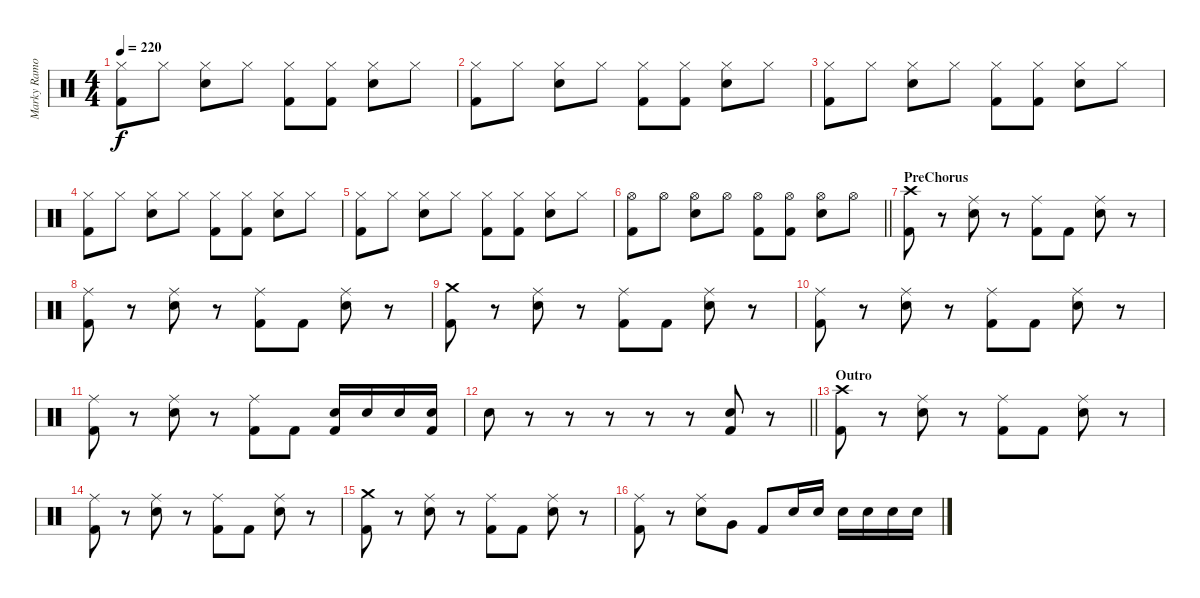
\track ("Marky Ramone" "Marky Ramo") {instrument percussion}
\staff {score}
\articulation defaults
\ts (4 4)
\tempo 220
\clef neutral
\ks c
("Hi-Hat (closed)" "Kick (hit) 2").8{dy f} "Hi-Hat (closed)".8 ("Hi-Hat (closed)" "Electric Snare (hit)").8 "Hi-Hat (closed)".8 ("Hi-Hat (closed)" "Kick (hit) 2").8 ("Hi-Hat (closed)" "Kick (hit) 2").8 ("Hi-Hat (closed)" "Electric Snare (hit)").8 "Hi-Hat (closed)".8 |
("Hi-Hat (closed)" "Kick (hit) 2").8 "Hi-Hat (closed)".8 ("Hi-Hat (closed)" "Electric Snare (hit)").8 "Hi-Hat (closed)".8 ("Hi-Hat (closed)" "Kick (hit) 2").8 ("Hi-Hat (closed)" "Kick (hit) 2").8 ("Hi-Hat (closed)" "Electric Snare (hit)").8 "Hi-Hat (closed)".8 |
("Hi-Hat (closed)" "Kick (hit) 2").8 "Hi-Hat (closed)".8 ("Hi-Hat (closed)" "Electric Snare (hit)").8 "Hi-Hat (closed)".8 ("Hi-Hat (closed)" "Kick (hit) 2").8 ("Hi-Hat (closed)" "Kick (hit) 2").8 ("Hi-Hat (closed)" "Electric Snare (hit)").8 "Hi-Hat (closed)".8 |
("Hi-Hat (closed)" "Kick (hit) 2").8 "Hi-Hat (closed)".8 ("Hi-Hat (closed)" "Electric Snare (hit)").8 "Hi-Hat (closed)".8 ("Hi-Hat (closed)" "Kick (hit) 2").8 ("Hi-Hat (closed)" "Kick (hit) 2").8 ("Hi-Hat (closed)" "Electric Snare (hit)").8 "Hi-Hat (closed)".8 |
("Hi-Hat (closed)" "Kick (hit) 2").8 "Hi-Hat (closed)".8 ("Hi-Hat (closed)" "Electric Snare (hit)").8 "Hi-Hat (closed)".8 ("Hi-Hat (closed)" "Kick (hit) 2").8 ("Hi-Hat (closed)" "Kick (hit) 2").8 ("Hi-Hat (closed)" "Electric Snare (hit)").8 "Hi-Hat (closed)".8 |
\barLineRight lightlight
("Hi-Hat (open)" "Kick (hit) 2").8 "Hi-Hat (open)".8 ("Hi-Hat (open)" "Electric Snare (hit)").8 "Hi-Hat (open)".8 ("Hi-Hat (open)" "Kick (hit) 2").8 ("Hi-Hat (open)" "Kick (hit) 2").8 ("Hi-Hat (open)" "Electric Snare (hit)").8 "Hi-Hat (open)".8 |
\section ("" "PreChorus")
("Crash high (hit)" "Kick (hit) 2").8 r.8 ("Ride (middle)" "Electric Snare (hit)").8 r.8 ("Ride (middle)" "Kick (hit) 2").8 "Kick (hit) 2".8 ("Ride (middle)" "Electric Snare (hit)").8 r.8 |
("Ride (middle)" "Kick (hit) 2").8 r.8 ("Ride (middle)" "Electric Snare (hit)").8 r.8 ("Ride (middle)" "Kick (hit) 2").8 "Kick (hit) 2".8 ("Ride (middle)" "Electric Snare (hit)").8 r.8 |
("Crash medium (hit)" "Kick (hit) 2").8 r.8 ("Ride (middle)" "Electric Snare (hit)").8 r.8 ("Ride (middle)" "Kick (hit) 2").8 "Kick (hit) 2".8 ("Ride (middle)" "Electric Snare (hit)").8 r.8 |
("Ride (middle)" "Kick (hit) 2").8 r.8 ("Ride (middle)" "Electric Snare (hit)").8 r.8 ("Ride (middle)" "Kick (hit) 2").8 "Kick (hit) 2".8 ("Ride (middle)" "Electric Snare (hit)").8 r.8 |
("Ride (middle)" "Kick (hit) 2").8 r.8 ("Ride (middle)" "Electric Snare (hit)").8 r.8 ("Ride (middle)" "Kick (hit) 2").8 "Kick (hit) 2".8 ("Electric Snare (hit)" "Kick (hit) 2").16 "Electric Snare (hit)".16 "Electric Snare (hit)".16 ("Electric Snare (hit)" "Kick (hit) 2").16 |
\barLineRight lightlight "Electric Snare (hit)".8
r.8 r.8 r.8 r.8 r.8 ("Electric Snare (hit)" "Kick (hit) 2").8 r.8 |
\section ("" "Outro")
("Crash high (hit)" "Kick (hit) 2").8 r.8 ("Ride (middle)" "Electric Snare (hit)").8 r.8 ("Ride (middle)" "Kick (hit) 2").8 "Kick (hit) 2".8 ("Ride (middle)" "Electric Snare (hit)").8 r.8 |
("Ride (middle)" "Kick (hit) 2").8 r.8 ("Ride (middle)" "Electric Snare (hit)").8 r.8 ("Ride (middle)" "Kick (hit) 2").8 "Kick (hit) 2".8 ("Ride (middle)" "Electric Snare (hit)").8 r.8 |
("Crash medium (hit)" "Kick (hit) 2").8 r.8 ("Ride (middle)" "Electric Snare (hit)").8 r.8 ("Ride (middle)" "Kick (hit) 2").8 "Kick (hit) 2".8 ("Ride (middle)" "Electric Snare (hit)").8 r.8 |
("Ride (middle)" "Kick (hit) 2").8 r.8 ("Ride (middle)" "Electric Snare (hit)").8 "Very Low Tom (hit)".8 "Kick (hit) 2".8 "Electric Snare (hit)".16 "Electric Snare (hit)".16 "Electric Snare (hit)".16 "Electric Snare (hit)".16 "Electric Snare (hit)".16 "Electric Snare (hit)".16
